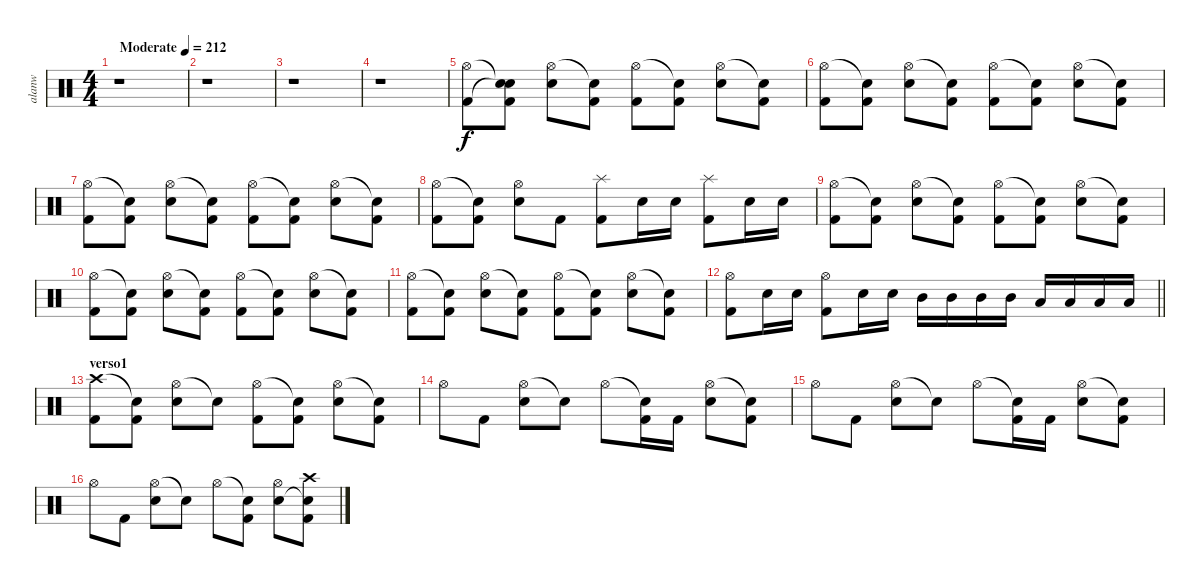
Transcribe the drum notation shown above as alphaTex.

\track ("alanw" "alanw") {instrument percussion}
\staff {score}
\articulation defaults
\ts (4 4)
\tempo (212 "Moderate")
\clef neutral
\ks c
r.1{dy f} |
r.1 |
r.1 |
r.1 |
("Hi-Hat (open)" "Kick (hit) 2").8 ("Snare (hit)"{t} "Snare (hit)"{t} "Kick (hit) 2").8 ("Hi-Hat (open)" "Electric Snare (hit)").8 ("Snare (hit)"{t} "Kick (hit) 2").8 ("Hi-Hat (open)" "Kick (hit) 2").8 ("Snare (hit)"{t} "Kick (hit) 2").8 ("Hi-Hat (open)" "Electric Snare (hit)").8 ("Snare (hit)"{t} "Kick (hit) 2").8 |
("Hi-Hat (open)" "Kick (hit) 2").8 ("Snare (hit)"{t} "Kick (hit) 2").8 ("Hi-Hat (open)" "Electric Snare (hit)").8 ("Snare (hit)"{t} "Kick (hit) 2").8 ("Hi-Hat (open)" "Kick (hit) 2").8 ("Snare (hit)"{t} "Kick (hit) 2").8 ("Hi-Hat (open)" "Electric Snare (hit)").8 ("Snare (hit)"{t} "Kick (hit) 2").8 |
("Hi-Hat (open)" "Kick (hit) 2").8 ("Snare (hit)"{t} "Kick (hit) 2").8 ("Hi-Hat (open)" "Electric Snare (hit)").8 ("Snare (hit)"{t} "Kick (hit) 2").8 ("Hi-Hat (open)" "Kick (hit) 2").8 ("Snare (hit)"{t} "Kick (hit) 2").8 ("Hi-Hat (open)" "Electric Snare (hit)").8 ("Snare (hit)"{t} "Kick (hit) 2").8 |
("Hi-Hat (open)" "Kick (hit) 2").8 ("Snare (hit)"{t} "Kick (hit) 2").8 ("Hi-Hat (open)" "Electric Snare (hit)").8 "Kick (hit) 2".8 ("Splash (hit)" "Kick (hit) 2").8 "Electric Snare (hit)".16 "Electric Snare (hit)".16 ("Splash (hit)" "Kick (hit) 2").8 "Electric Snare (hit)".16 "Electric Snare (hit)".16 |
("Hi-Hat (open)" "Kick (hit) 2").8 ("Snare (hit)"{t} "Kick (hit) 2").8 ("Hi-Hat (open)" "Electric Snare (hit)").8 ("Snare (hit)"{t} "Kick (hit) 2").8 ("Hi-Hat (open)" "Kick (hit) 2").8 ("Snare (hit)"{t} "Kick (hit) 2").8 ("Hi-Hat (open)" "Electric Snare (hit)").8 ("Snare (hit)"{t} "Kick (hit) 2").8 |
("Hi-Hat (open)" "Kick (hit) 2").8 ("Snare (hit)"{t} "Kick (hit) 2").8 ("Hi-Hat (open)" "Electric Snare (hit)").8 ("Snare (hit)"{t} "Kick (hit) 2").8 ("Hi-Hat (open)" "Kick (hit) 2").8 ("Snare (hit)"{t} "Kick (hit) 2").8 ("Hi-Hat (open)" "Electric Snare (hit)").8 ("Snare (hit)"{t} "Kick (hit) 2").8 |
("Hi-Hat (open)" "Kick (hit) 2").8 ("Snare (hit)"{t} "Kick (hit) 2").8 ("Hi-Hat (open)" "Electric Snare (hit)").8 ("Snare (hit)"{t} "Kick (hit) 2").8 ("Hi-Hat (open)" "Kick (hit) 2").8 ("Snare (hit)"{t} "Kick (hit) 2").8 ("Hi-Hat (open)" "Electric Snare (hit)").8 ("Snare (hit)"{t} "Kick (hit) 2").8 |
\barLineRight lightlight
("Hi-Hat (open)" "Kick (hit) 2").8 "Electric Snare (hit)".16 "Electric Snare (hit)".16 ("Hi-Hat (open)" "Kick (hit) 2").8 "Electric Snare (hit)".16 "Electric Snare (hit)".16 "Mid Tom (hit)".16 "Mid Tom (hit)".16 "Mid Tom (hit)".16 "Mid Tom (hit)".16 "Low Tom (hit)".16 "Low Tom (hit)".16 "Low Tom (hit)".16 "Low Tom (hit)".16 |
\section ("" "verso1")
("Crash high (hit)" "Kick (hit) 2").8 ("Snare (hit)"{t} "Kick (hit) 2").8 ("Hi-Hat (open)" "Electric Snare (hit)").8 "Snare (hit)"{t}.8 ("Hi-Hat (open)" "Kick (hit) 2").8 ("Snare (hit)"{t} "Kick (hit) 2").8 ("Hi-Hat (open)" "Electric Snare (hit)").8 ("Snare (hit)"{t} "Kick (hit) 2").8 |
"Hi-Hat (open)".8 "Kick (hit) 2".8 ("Hi-Hat (open)" "Electric Snare (hit)").8 "Snare (hit)"{t}.8 "Hi-Hat (open)".8 ("Snare (hit)"{t} "Kick (hit) 2").16 "Kick (hit) 2".16 ("Hi-Hat (open)" "Electric Snare (hit)").8 ("Snare (hit)"{t} "Kick (hit) 2").8 |
"Hi-Hat (open)".8 "Kick (hit) 2".8 ("Hi-Hat (open)" "Electric Snare (hit)").8 "Snare (hit)"{t}.8 "Hi-Hat (open)".8 ("Snare (hit)"{t} "Kick (hit) 2").16 "Kick (hit) 2".16 ("Hi-Hat (open)" "Electric Snare (hit)").8 ("Snare (hit)"{t} "Kick (hit) 2").8 |
"Hi-Hat (open)".8 "Kick (hit) 2".8 ("Hi-Hat (open)" "Electric Snare (hit)").8 "Snare (hit)"{t}.8 "Hi-Hat (open)".8 ("Snare (hit)"{t} "Kick (hit) 2").8 ("Hi-Hat (open)" "Electric Snare (hit)").8 ("Crash high (hit)" "Snare (hit)"{t} "Kick (hit) 2").8
